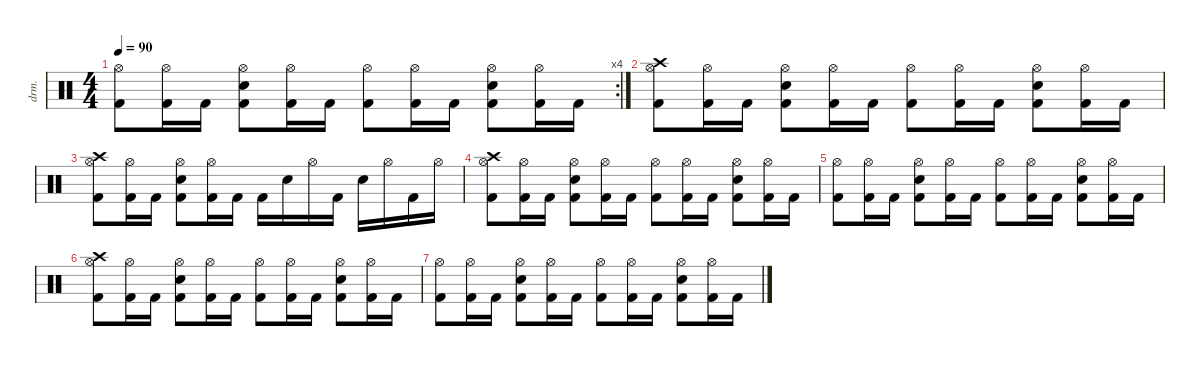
\defaultSystemsLayout 4
\hideDynamics
\bracketExtendMode nobrackets
\otherSystemsTrackNameOrientation horizontal
\track ("Percussion " "drm.") {instrument percussion}
\staff {score}
\articulation defaults
\rc 4
\ts (4 4)
\tempo 90
\clef neutral
\ks c
("Hi-Hat (open)" "Kick (hit) 2").8{dy f beam Down} ("Hi-Hat (open)" "Kick (hit) 2").16{beam Down} "Kick (hit) 2".16{beam Down} ("Hi-Hat (open)" "Snare (hit) 2" "Kick (hit) 2").8{beam Down} ("Hi-Hat (open)" "Kick (hit) 2").16{beam Down} "Kick (hit) 2".16{beam Down} ("Hi-Hat (open)" "Kick (hit) 2").8{beam Down} ("Hi-Hat (open)" "Kick (hit) 2").16{beam Down} "Kick (hit) 2".16{beam Down} ("Hi-Hat (open)" "Snare (hit) 2" "Kick (hit) 2").8{beam Down} ("Hi-Hat (open)" "Kick (hit) 2").16{beam Down} "Kick (hit) 2".16{beam Down} |
("Crash high (hit)" "Hi-Hat (open)" "Kick (hit) 2").8{beam Down} ("Hi-Hat (open)" "Kick (hit) 2").16{beam Down} "Kick (hit) 2".16{beam Down} ("Hi-Hat (open)" "Snare (hit) 2" "Kick (hit) 2").8{beam Down} ("Hi-Hat (open)" "Kick (hit) 2").16{beam Down} "Kick (hit) 2".16{beam Down} ("Hi-Hat (open)" "Kick (hit) 2").8{beam Down} ("Hi-Hat (open)" "Kick (hit) 2").16{beam Down} "Kick (hit) 2".16{beam Down} ("Hi-Hat (open)" "Snare (hit) 2" "Kick (hit) 2").8{beam Down} ("Hi-Hat (open)" "Kick (hit) 2").16{beam Down} "Kick (hit) 2".16{beam Down} |
("Crash high (hit)" "Hi-Hat (open)" "Kick (hit) 2").8{beam Down} ("Hi-Hat (open)" "Kick (hit) 2").16{beam Down} "Kick (hit) 2".16{beam Down} ("Hi-Hat (open)" "Snare (hit) 2" "Kick (hit) 2").8{beam Down} ("Hi-Hat (open)" "Kick (hit) 2").16{beam Down} "Kick (hit) 2".16{beam Down} "Kick (hit) 2".16{beam Down} "Snare (hit) 2".16{beam Down} "Hi-Hat (open)".16{beam Down} "Kick (hit) 2".16{beam Down} "Snare (hit) 2".16{beam Down} "Hi-Hat (open)".16{beam Down} "Kick (hit) 2".16{beam Down} "Hi-Hat (open)".16{beam Down} |
("Crash high (hit)" "Hi-Hat (open)" "Kick (hit) 2").8{beam Down} ("Hi-Hat (open)" "Kick (hit) 2").16{beam Down} "Kick (hit) 2".16{beam Down} ("Hi-Hat (open)" "Snare (hit) 2" "Kick (hit) 2").8{beam Down} ("Hi-Hat (open)" "Kick (hit) 2").16{beam Down} "Kick (hit) 2".16{beam Down} ("Hi-Hat (open)" "Kick (hit) 2").8{beam Down} ("Hi-Hat (open)" "Kick (hit) 2").16{beam Down} "Kick (hit) 2".16{beam Down} ("Hi-Hat (open)" "Snare (hit) 2" "Kick (hit) 2").8{beam Down} ("Hi-Hat (open)" "Kick (hit) 2").16{beam Down} "Kick (hit) 2".16{beam Down} |
("Hi-Hat (open)" "Kick (hit) 2").8{beam Down} ("Hi-Hat (open)" "Kick (hit) 2").16{beam Down} "Kick (hit) 2".16{beam Down} ("Hi-Hat (open)" "Snare (hit) 2" "Kick (hit) 2").8{beam Down} ("Hi-Hat (open)" "Kick (hit) 2").16{beam Down} "Kick (hit) 2".16{beam Down} ("Hi-Hat (open)" "Kick (hit) 2").8{beam Down} ("Hi-Hat (open)" "Kick (hit) 2").16{beam Down} "Kick (hit) 2".16{beam Down} ("Hi-Hat (open)" "Snare (hit) 2" "Kick (hit) 2").8{beam Down} ("Hi-Hat (open)" "Kick (hit) 2").16{beam Down} "Kick (hit) 2".16{beam Down} |
("Crash high (hit)" "Hi-Hat (open)" "Kick (hit) 2").8{beam Down} ("Hi-Hat (open)" "Kick (hit) 2").16{beam Down} "Kick (hit) 2".16{beam Down} ("Hi-Hat (open)" "Snare (hit) 2" "Kick (hit) 2").8{beam Down} ("Hi-Hat (open)" "Kick (hit) 2").16{beam Down} "Kick (hit) 2".16{beam Down} ("Hi-Hat (open)" "Kick (hit) 2").8{beam Down} ("Hi-Hat (open)" "Kick (hit) 2").16{beam Down} "Kick (hit) 2".16{beam Down} ("Hi-Hat (open)" "Snare (hit) 2" "Kick (hit) 2").8{beam Down} ("Hi-Hat (open)" "Kick (hit) 2").16{beam Down} "Kick (hit) 2".16{beam Down} |
("Hi-Hat (open)" "Kick (hit) 2").8{beam Down} ("Hi-Hat (open)" "Kick (hit) 2").16{beam Down} "Kick (hit) 2".16{beam Down} ("Hi-Hat (open)" "Snare (hit) 2" "Kick (hit) 2").8{beam Down} ("Hi-Hat (open)" "Kick (hit) 2").16{beam Down} "Kick (hit) 2".16{beam Down} ("Hi-Hat (open)" "Kick (hit) 2").8{beam Down} ("Hi-Hat (open)" "Kick (hit) 2").16{beam Down} "Kick (hit) 2".16{beam Down} ("Hi-Hat (open)" "Snare (hit) 2" "Kick (hit) 2").8{beam Down} ("Hi-Hat (open)" "Kick (hit) 2").16{beam Down} "Kick (hit) 2".16{beam Down}
